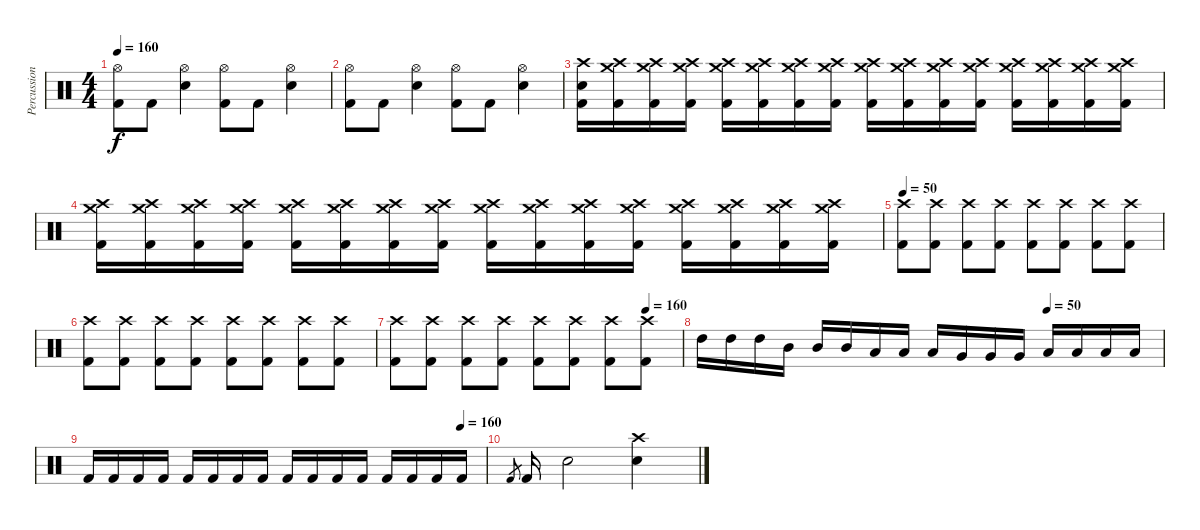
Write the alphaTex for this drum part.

\track ("Percussion" "Percussion") {instrument percussion}
\staff {score}
\articulation defaults
\ts (4 4)
\tempo 160
\clef neutral
\ks c
("Hi-Hat (open)" "Kick (hit) 2").8{dy f} "Kick (hit) 2".8 ("Hi-Hat (open)" "Snare (hit) 2").4 ("Hi-Hat (open)" "Kick (hit) 2").8 "Kick (hit) 2".8 ("Hi-Hat (open)" "Snare (hit) 2").4 |
("Hi-Hat (open)" "Kick (hit) 2").8 "Kick (hit) 2".8 ("Hi-Hat (open)" "Snare (hit) 2").4 ("Hi-Hat (open)" "Kick (hit) 2").8 "Kick (hit) 2".8 ("Hi-Hat (open)" "Snare (hit) 2").4 |
("Crash high (hit)" "Snare (hit) 2" "Kick (hit) 2").16 ("Crash high (hit)" "Crash medium (hit)" "Kick (hit) 2").16 ("Crash high (hit)" "Crash medium (hit)" "Kick (hit) 2").16 ("Crash high (hit)" "Crash medium (hit)" "Kick (hit) 2").16 ("Crash high (hit)" "Crash medium (hit)" "Kick (hit) 2").16 ("Crash high (hit)" "Crash medium (hit)" "Kick (hit) 2").16 ("Crash high (hit)" "Crash medium (hit)" "Kick (hit) 2").16 ("Crash high (hit)" "Crash medium (hit)" "Kick (hit) 2").16 ("Crash high (hit)" "Crash medium (hit)" "Kick (hit) 2").16 ("Crash high (hit)" "Crash medium (hit)" "Kick (hit) 2").16 ("Crash high (hit)" "Crash medium (hit)" "Kick (hit) 2").16 ("Crash high (hit)" "Crash medium (hit)" "Kick (hit) 2").16 ("Crash high (hit)" "Crash medium (hit)" "Kick (hit) 2").16 ("Crash high (hit)" "Crash medium (hit)" "Kick (hit) 2").16 ("Crash high (hit)" "Crash medium (hit)" "Kick (hit) 2").16 ("Crash high (hit)" "Crash medium (hit)" "Kick (hit) 2").16 |
("Crash high (hit)" "Crash medium (hit)" "Kick (hit) 2").16 ("Crash high (hit)" "Crash medium (hit)" "Kick (hit) 2").16 ("Crash high (hit)" "Crash medium (hit)" "Kick (hit) 2").16 ("Crash high (hit)" "Crash medium (hit)" "Kick (hit) 2").16 ("Crash high (hit)" "Crash medium (hit)" "Kick (hit) 2").16 ("Crash high (hit)" "Crash medium (hit)" "Kick (hit) 2").16 ("Crash high (hit)" "Crash medium (hit)" "Kick (hit) 2").16 ("Crash high (hit)" "Crash medium (hit)" "Kick (hit) 2").16 ("Crash high (hit)" "Crash medium (hit)" "Kick (hit) 2").16 ("Crash high (hit)" "Crash medium (hit)" "Kick (hit) 2").16 ("Crash high (hit)" "Crash medium (hit)" "Kick (hit) 2").16 ("Crash high (hit)" "Crash medium (hit)" "Kick (hit) 2").16 ("Crash high (hit)" "Crash medium (hit)" "Kick (hit) 2").16 ("Crash high (hit)" "Crash medium (hit)" "Kick (hit) 2").16 ("Crash high (hit)" "Crash medium (hit)" "Kick (hit) 2").16 ("Crash high (hit)" "Crash medium (hit)" "Kick (hit) 2").16 |
\tempo 50
("Crash high (hit)" "Kick (hit) 2").8 ("Crash high (hit)" "Kick (hit) 2").8 ("Crash high (hit)" "Kick (hit) 2").8 ("Crash high (hit)" "Kick (hit) 2").8 ("Crash high (hit)" "Kick (hit) 2").8 ("Crash high (hit)" "Kick (hit) 2").8 ("Crash high (hit)" "Kick (hit) 2").8 ("Crash high (hit)" "Kick (hit) 2").8 |
("Crash high (hit)" "Kick (hit) 2").8 ("Crash high (hit)" "Kick (hit) 2").8 ("Crash high (hit)" "Kick (hit) 2").8 ("Crash high (hit)" "Kick (hit) 2").8 ("Crash high (hit)" "Kick (hit) 2").8 ("Crash high (hit)" "Kick (hit) 2").8 ("Crash high (hit)" "Kick (hit) 2").8 ("Crash high (hit)" "Kick (hit) 2").8 |
\tempo (160 0.875)
("Crash high (hit)" "Kick (hit) 2").8 ("Crash high (hit)" "Kick (hit) 2").8 ("Crash high (hit)" "Kick (hit) 2").8 ("Crash high (hit)" "Kick (hit) 2").8 ("Crash high (hit)" "Kick (hit) 2").8 ("Crash high (hit)" "Kick (hit) 2").8 ("Crash high (hit)" "Kick (hit) 2").8 ("Crash high (hit)" "Kick (hit) 2").8 |
\tempo (50 0.75)
"High Tom (hit)".16 "High Tom (hit)".16 "High Tom (hit)".16 "Mid Tom (hit)".16 "Mid Tom (hit)".16 "Mid Tom (hit)".16 "Low Tom (hit)".16 "Low Tom (hit)".16 "Low Tom (hit)".16 "Very Low Tom (hit)".16 "Very Low Tom (hit)".16 "Very Low Tom (hit)".16 "Low Floor Tom (hit)".16 "Low Floor Tom (hit)".16 "Low Floor Tom (hit)".16 "Low Floor Tom (hit)".16 |
\tempo (160 0.9375)
"Kick (hit) 2".16 "Kick (hit) 2".16 "Kick (hit) 2".16 "Kick (hit) 2".16 "Kick (hit) 2".16 "Kick (hit) 2".16 "Kick (hit) 2".16 "Kick (hit) 2".16 "Kick (hit) 2".16 "Kick (hit) 2".16 "Kick (hit) 2".16 "Kick (hit) 2".16 "Kick (hit) 2".16 "Kick (hit) 2".16 "Kick (hit) 2".16 "Kick (hit) 2".16 |
"Kick (hit) 2".8{gr} "Kick (hit) 2".16 "Snare (hit) 2".2 ("Crash high (hit)" "Snare (hit) 2").4
